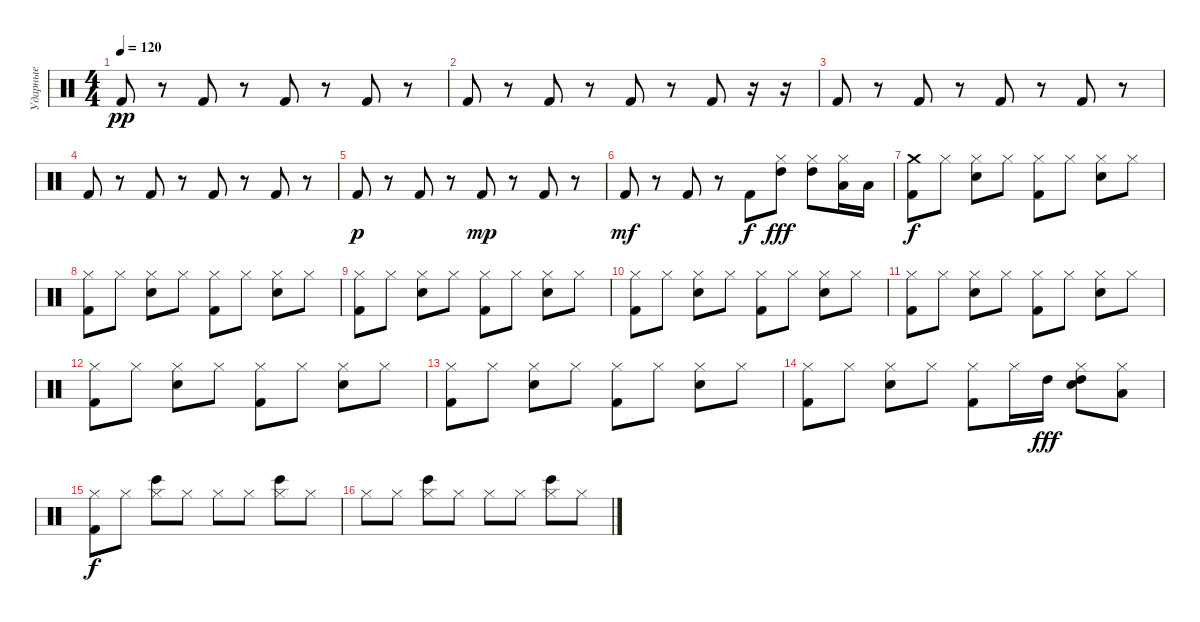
\track ("Ударные" "Ударные") {instrument percussion}
\staff {score}
\articulation defaults
\ts (4 4)
\tempo 120
\clef neutral
\ks c "Kick (hit) 2".8{dy pp}
r.8 "Kick (hit) 2".8 r.8 "Kick (hit) 2".8 r.8 "Kick (hit) 2".8 r.8 |
"Kick (hit) 2".8 r.8 "Kick (hit) 2".8 r.8 "Kick (hit) 2".8 r.8 "Kick (hit) 2".8 r.16 r.16 |
"Kick (hit) 2".8 r.8 "Kick (hit) 2".8 r.8 "Kick (hit) 2".8 r.8 "Kick (hit) 2".8 r.8 |
"Kick (hit) 2".8 r.8 "Kick (hit) 2".8 r.8 "Kick (hit) 2".8 r.8 "Kick (hit) 2".8 r.8 |
"Kick (hit) 2".8{dy p} r.8 "Kick (hit) 2".8 r.8 "Kick (hit) 2".8{dy mp} r.8 "Kick (hit) 2".8 r.8 |
"Kick (hit) 2".8{dy mf} r.8 "Kick (hit) 2".8 r.8 "Kick (hit) 2".8{dy f} ("Hi-Hat (closed)" "High Tom (hit)").8{dy fff} ("Hi-Hat (closed)" "High Tom (hit)").8 ("Hi-Hat (closed)" "Low Tom (hit)").16 "Low Floor Tom (hit)".16 |
("Kick (hit) 2" "Crash medium (hit)").8{dy f} "Hi-Hat (closed)".8 ("Electric Snare (hit)" "Hi-Hat (closed)").8 "Hi-Hat (closed)".8 ("Kick (hit) 2" "Hi-Hat (closed)").8 "Hi-Hat (closed)".8 ("Electric Snare (hit)" "Hi-Hat (closed)").8 "Hi-Hat (closed)".8 |
("Kick (hit) 2" "Hi-Hat (closed)").8 "Hi-Hat (closed)".8 ("Electric Snare (hit)" "Hi-Hat (closed)").8 "Hi-Hat (closed)".8 ("Kick (hit) 2" "Hi-Hat (closed)").8 "Hi-Hat (closed)".8 ("Electric Snare (hit)" "Hi-Hat (closed)").8 "Hi-Hat (closed)".8 |
("Kick (hit) 2" "Hi-Hat (closed)").8 "Hi-Hat (closed)".8 ("Electric Snare (hit)" "Hi-Hat (closed)").8 "Hi-Hat (closed)".8 ("Kick (hit) 2" "Hi-Hat (closed)").8 "Hi-Hat (closed)".8 ("Electric Snare (hit)" "Hi-Hat (closed)").8 "Hi-Hat (closed)".8 |
("Kick (hit) 2" "Hi-Hat (closed)").8 "Hi-Hat (closed)".8 ("Electric Snare (hit)" "Hi-Hat (closed)").8 "Hi-Hat (closed)".8 ("Kick (hit) 2" "Hi-Hat (closed)").8 "Hi-Hat (closed)".8 ("Electric Snare (hit)" "Hi-Hat (closed)").8 "Hi-Hat (closed)".8 |
("Kick (hit) 2" "Hi-Hat (closed)").8 "Hi-Hat (closed)".8 ("Electric Snare (hit)" "Hi-Hat (closed)").8 "Hi-Hat (closed)".8 ("Kick (hit) 2" "Hi-Hat (closed)").8 "Hi-Hat (closed)".8 ("Electric Snare (hit)" "Hi-Hat (closed)").8 "Hi-Hat (closed)".8 |
("Kick (hit) 2" "Hi-Hat (closed)").8 "Hi-Hat (closed)".8 ("Electric Snare (hit)" "Hi-Hat (closed)").8 "Hi-Hat (closed)".8 ("Kick (hit) 2" "Hi-Hat (closed)").8 "Hi-Hat (closed)".8 ("Electric Snare (hit)" "Hi-Hat (closed)").8 "Hi-Hat (closed)".8 |
("Kick (hit) 2" "Hi-Hat (closed)").8 "Hi-Hat (closed)".8 ("Electric Snare (hit)" "Hi-Hat (closed)").8 "Hi-Hat (closed)".8 ("Kick (hit) 2" "Hi-Hat (closed)").8 "Hi-Hat (closed)".8 ("Electric Snare (hit)" "Hi-Hat (closed)").8 "Hi-Hat (closed)".8 |
("Kick (hit) 2" "Hi-Hat (closed)").8 "Hi-Hat (closed)".8 ("Electric Snare (hit)" "Hi-Hat (closed)").8 "Hi-Hat (closed)".8 ("Kick (hit) 2" "Hi-Hat (closed)").8 "Hi-Hat (closed)".16 "High Tom (hit)".16{dy fff} ("Electric Snare (hit)" "Hi-Hat (closed)" "High Tom (hit)").8 ("Hi-Hat (closed)" "Low Floor Tom (hit)").8 |
("Hi-Hat (closed)" "Kick (hit) 2").8{dy f} "Hi-Hat (closed)".8 ("Hi-Hat (closed)" "Bongo High (hit)").8 "Hi-Hat (closed)".8 "Hi-Hat (closed)".8 "Hi-Hat (closed)".8 ("Hi-Hat (closed)" "Bongo High (hit)").8 "Hi-Hat (closed)".8 |
"Hi-Hat (closed)".8 "Hi-Hat (closed)".8 ("Hi-Hat (closed)" "Bongo High (hit)").8 "Hi-Hat (closed)".8 "Hi-Hat (closed)".8 "Hi-Hat (closed)".8 ("Hi-Hat (closed)" "Bongo High (hit)").8 "Hi-Hat (closed)".8
